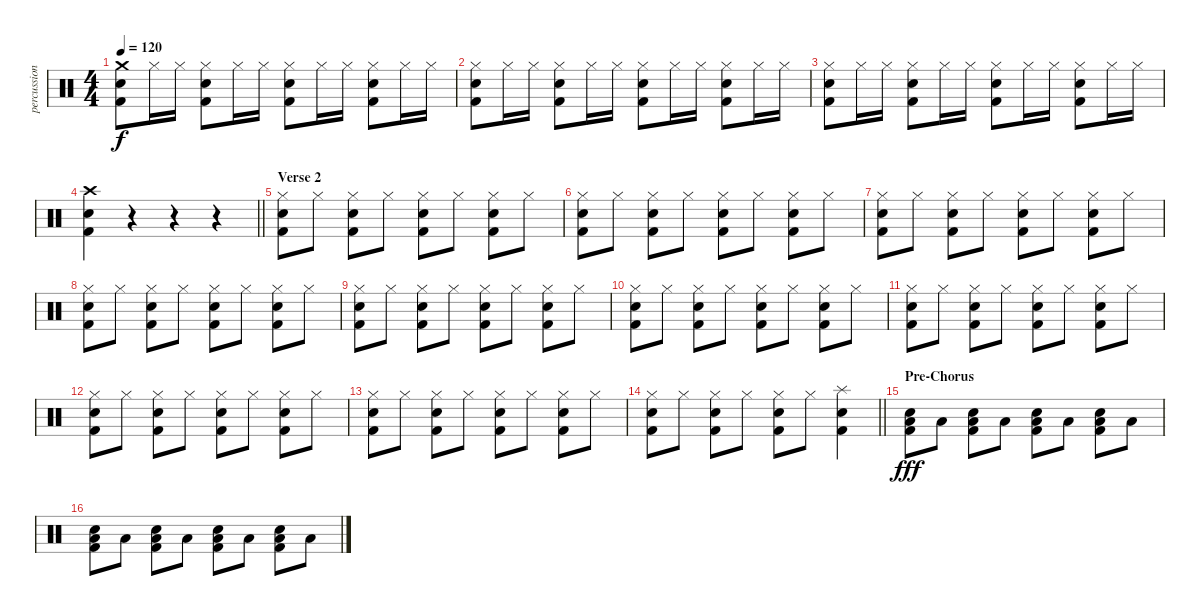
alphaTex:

\track ("percussion" "percussion") {instrument percussion}
\staff {score}
\articulation defaults
\ts (4 4)
\tempo 120
\clef neutral
\ks c
("Crash medium (hit)" "Snare (hit) 2" "Kick (hit) 2").8{dy f} "Hi-Hat (closed)".16 "Hi-Hat (closed)".16 ("Snare (hit) 2" "Hi-Hat (closed)" "Kick (hit) 2").8 "Hi-Hat (closed)".16 "Hi-Hat (closed)".16 ("Snare (hit) 2" "Hi-Hat (closed)" "Kick (hit) 2").8 "Hi-Hat (closed)".16 "Hi-Hat (closed)".16 ("Snare (hit) 2" "Hi-Hat (closed)" "Kick (hit) 2").8 "Hi-Hat (closed)".16 "Hi-Hat (closed)".16 |
("Snare (hit) 2" "Hi-Hat (closed)" "Kick (hit) 2").8 "Hi-Hat (closed)".16 "Hi-Hat (closed)".16 ("Snare (hit) 2" "Hi-Hat (closed)" "Kick (hit) 2").8 "Hi-Hat (closed)".16 "Hi-Hat (closed)".16 ("Snare (hit) 2" "Hi-Hat (closed)" "Kick (hit) 2").8 "Hi-Hat (closed)".16 "Hi-Hat (closed)".16 ("Snare (hit) 2" "Hi-Hat (closed)" "Kick (hit) 2").8 "Hi-Hat (closed)".16 "Hi-Hat (closed)".16 |
("Snare (hit) 2" "Hi-Hat (closed)" "Kick (hit) 2").8 "Hi-Hat (closed)".16 "Hi-Hat (closed)".16 ("Snare (hit) 2" "Hi-Hat (closed)" "Kick (hit) 2").8 "Hi-Hat (closed)".16 "Hi-Hat (closed)".16 ("Snare (hit) 2" "Hi-Hat (closed)" "Kick (hit) 2").8 "Hi-Hat (closed)".16 "Hi-Hat (closed)".16 ("Snare (hit) 2" "Hi-Hat (closed)" "Kick (hit) 2").8 "Hi-Hat (closed)".16 "Hi-Hat (closed)".16 |
\barLineRight lightlight
("Crash high (hit)" "Snare (hit) 2" "Kick (hit) 2").4 r.4 r.4 r.4 |
\section ("" "Verse 2")
("Snare (hit) 2" "Hi-Hat (closed)" "Kick (hit) 2").8 "Hi-Hat (closed)".8 ("Snare (hit) 2" "Hi-Hat (closed)" "Kick (hit) 2").8 "Hi-Hat (closed)".8 ("Snare (hit) 2" "Hi-Hat (closed)" "Kick (hit) 2").8 "Hi-Hat (closed)".8 ("Snare (hit) 2" "Hi-Hat (closed)" "Kick (hit) 2").8 "Hi-Hat (closed)".8 |
("Snare (hit) 2" "Hi-Hat (closed)" "Kick (hit) 2").8 "Hi-Hat (closed)".8 ("Snare (hit) 2" "Hi-Hat (closed)" "Kick (hit) 2").8 "Hi-Hat (closed)".8 ("Snare (hit) 2" "Hi-Hat (closed)" "Kick (hit) 2").8 "Hi-Hat (closed)".8 ("Snare (hit) 2" "Hi-Hat (closed)" "Kick (hit) 2").8 "Hi-Hat (closed)".8 |
("Snare (hit) 2" "Hi-Hat (closed)" "Kick (hit) 2").8 "Hi-Hat (closed)".8 ("Snare (hit) 2" "Hi-Hat (closed)" "Kick (hit) 2").8 "Hi-Hat (closed)".8 ("Snare (hit) 2" "Hi-Hat (closed)" "Kick (hit) 2").8 "Hi-Hat (closed)".8 ("Snare (hit) 2" "Hi-Hat (closed)" "Kick (hit) 2").8 "Hi-Hat (closed)".8 |
("Snare (hit) 2" "Hi-Hat (closed)" "Kick (hit) 2").8 "Hi-Hat (closed)".8 ("Snare (hit) 2" "Hi-Hat (closed)" "Kick (hit) 2").8 "Hi-Hat (closed)".8 ("Snare (hit) 2" "Hi-Hat (closed)" "Kick (hit) 2").8 "Hi-Hat (closed)".8 ("Snare (hit) 2" "Hi-Hat (closed)" "Kick (hit) 2").8 "Hi-Hat (closed)".8 |
("Snare (hit) 2" "Hi-Hat (closed)" "Kick (hit) 2").8 "Hi-Hat (closed)".8 ("Snare (hit) 2" "Hi-Hat (closed)" "Kick (hit) 2").8 "Hi-Hat (closed)".8 ("Snare (hit) 2" "Hi-Hat (closed)" "Kick (hit) 2").8 "Hi-Hat (closed)".8 ("Snare (hit) 2" "Hi-Hat (closed)" "Kick (hit) 2").8 "Hi-Hat (closed)".8 |
("Snare (hit) 2" "Hi-Hat (closed)" "Kick (hit) 2").8 "Hi-Hat (closed)".8 ("Snare (hit) 2" "Hi-Hat (closed)" "Kick (hit) 2").8 "Hi-Hat (closed)".8 ("Snare (hit) 2" "Hi-Hat (closed)" "Kick (hit) 2").8 "Hi-Hat (closed)".8 ("Snare (hit) 2" "Hi-Hat (closed)" "Kick (hit) 2").8 "Hi-Hat (closed)".8 |
("Snare (hit) 2" "Hi-Hat (closed)" "Kick (hit) 2").8 "Hi-Hat (closed)".8 ("Snare (hit) 2" "Hi-Hat (closed)" "Kick (hit) 2").8 "Hi-Hat (closed)".8 ("Snare (hit) 2" "Hi-Hat (closed)" "Kick (hit) 2").8 "Hi-Hat (closed)".8 ("Snare (hit) 2" "Hi-Hat (closed)" "Kick (hit) 2").8 "Hi-Hat (closed)".8 |
("Snare (hit) 2" "Hi-Hat (closed)" "Kick (hit) 2").8 "Hi-Hat (closed)".8 ("Snare (hit) 2" "Hi-Hat (closed)" "Kick (hit) 2").8 "Hi-Hat (closed)".8 ("Snare (hit) 2" "Hi-Hat (closed)" "Kick (hit) 2").8 "Hi-Hat (closed)".8 ("Snare (hit) 2" "Hi-Hat (closed)" "Kick (hit) 2").8 "Hi-Hat (closed)".8 |
("Snare (hit) 2" "Hi-Hat (closed)" "Kick (hit) 2").8 "Hi-Hat (closed)".8 ("Snare (hit) 2" "Hi-Hat (closed)" "Kick (hit) 2").8 "Hi-Hat (closed)".8 ("Snare (hit) 2" "Hi-Hat (closed)" "Kick (hit) 2").8 "Hi-Hat (closed)".8 ("Snare (hit) 2" "Hi-Hat (closed)" "Kick (hit) 2").8 "Hi-Hat (closed)".8 |
\barLineRight lightlight
("Snare (hit) 2" "Hi-Hat (closed)" "Kick (hit) 2").8 "Hi-Hat (closed)".8 ("Snare (hit) 2" "Hi-Hat (closed)" "Kick (hit) 2").8 "Hi-Hat (closed)".8 ("Snare (hit) 2" "Hi-Hat (closed)" "Kick (hit) 2").8 "Hi-Hat (closed)".8 ("Splash (hit)" "Snare (hit) 2" "Kick (hit) 2").4 |
\section ("" "Pre-Chorus")
("Low Floor Tom (hit)" "Snare (hit) 2" "Kick (hit) 2").8{dy fff} "Low Floor Tom (hit)".8 ("Low Floor Tom (hit)" "Snare (hit) 2" "Kick (hit) 2").8 "Low Floor Tom (hit)".8 ("Low Floor Tom (hit)" "Snare (hit) 2" "Kick (hit) 2").8 "Low Floor Tom (hit)".8 ("Low Floor Tom (hit)" "Snare (hit) 2" "Kick (hit) 2").8 "Low Floor Tom (hit)".8 |
("Low Floor Tom (hit)" "Snare (hit) 2" "Kick (hit) 2").8 "Low Floor Tom (hit)".8 ("Low Floor Tom (hit)" "Snare (hit) 2" "Kick (hit) 2").8 "Low Floor Tom (hit)".8 ("Low Floor Tom (hit)" "Snare (hit) 2" "Kick (hit) 2").8 "Low Floor Tom (hit)".8 ("Low Floor Tom (hit)" "Snare (hit) 2" "Kick (hit) 2").8 "Low Floor Tom (hit)".8
